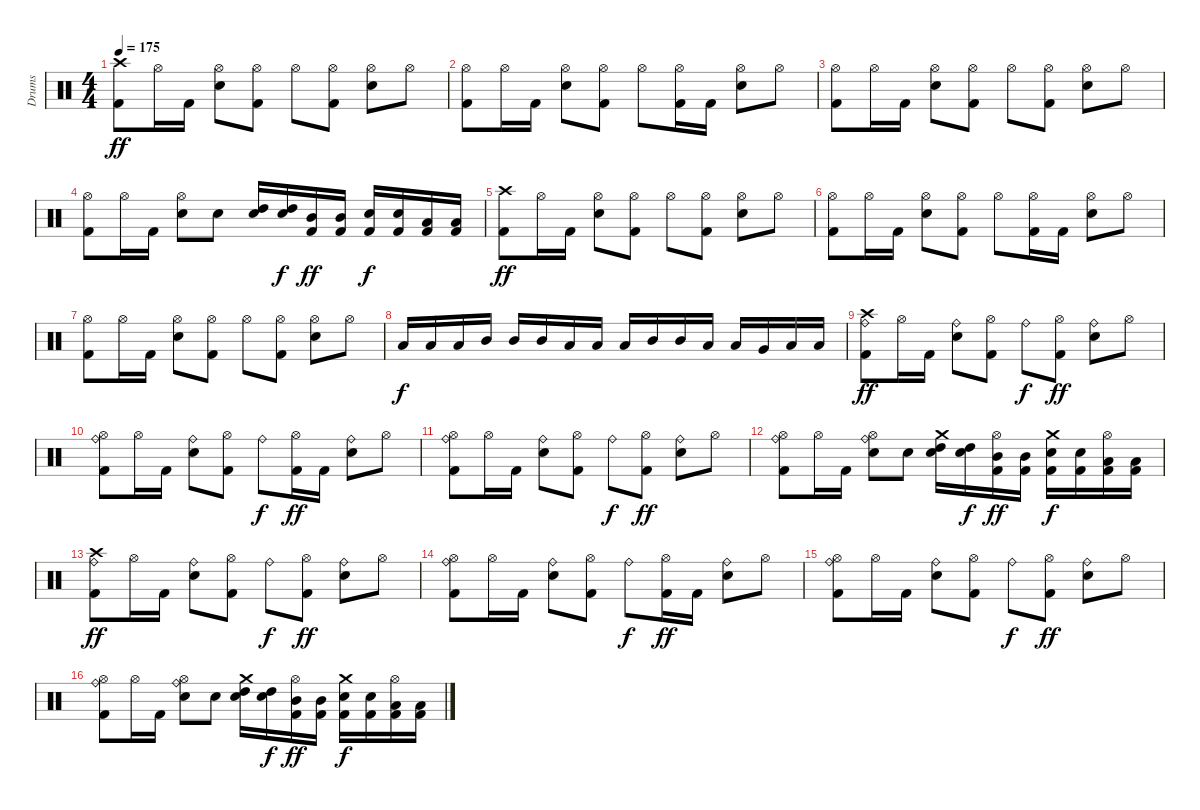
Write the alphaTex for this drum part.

\track ("Drums" "Drums") {instrument percussion}
\staff {score}
\articulation defaults
\ts (4 4)
\tempo 175
\clef neutral
\ks c
("Kick (hit) 2" "Crash high (hit)").8{dy ff} "Hi-Hat (open)".16 "Kick (hit) 2".16 ("Hi-Hat (open)" "Electric Snare (hit)").8 ("Kick (hit) 2" "Hi-Hat (open)").8 "Hi-Hat (open)".8 ("Kick (hit) 2" "Hi-Hat (open)").8 ("Hi-Hat (open)" "Electric Snare (hit)").8 "Hi-Hat (open)".8 |
("Kick (hit) 2" "Hi-Hat (open)").8 "Hi-Hat (open)".16 "Kick (hit) 2".16 ("Hi-Hat (open)" "Electric Snare (hit)").8 ("Kick (hit) 2" "Hi-Hat (open)").8 "Hi-Hat (open)".8 ("Kick (hit) 2" "Hi-Hat (open)").16 "Kick (hit) 2".16 ("Hi-Hat (open)" "Electric Snare (hit)").8 "Hi-Hat (open)".8 |
("Kick (hit) 2" "Hi-Hat (open)").8 "Hi-Hat (open)".16 "Kick (hit) 2".16 ("Hi-Hat (open)" "Electric Snare (hit)").8 ("Kick (hit) 2" "Hi-Hat (open)").8 "Hi-Hat (open)".8 ("Kick (hit) 2" "Hi-Hat (open)").8 ("Hi-Hat (open)" "Electric Snare (hit)").8 "Hi-Hat (open)".8 |
("Kick (hit) 2" "Hi-Hat (open)").8 "Hi-Hat (open)".16 "Kick (hit) 2".16 ("Hi-Hat (open)" "Electric Snare (hit)").8 "Snare (hit) 2".8 ("Electric Snare (hit)" "High Tom (hit)").16 ("Electric Snare (hit)" "High Tom (hit)").16{dy f} ("Kick (hit) 2" "Mid Tom (hit)").16{dy ff} ("Kick (hit) 2" "Mid Tom (hit)").16 ("Kick (hit) 2" "Electric Snare (hit)").16{dy f} ("Kick (hit) 2" "Electric Snare (hit)").16 ("Kick (hit) 2" "Low Tom (hit)").16 ("Kick (hit) 2" "Low Tom (hit)").16 |
("Kick (hit) 2" "Crash high (hit)").8{dy ff} "Hi-Hat (open)".16 "Kick (hit) 2".16 ("Hi-Hat (open)" "Electric Snare (hit)").8 ("Kick (hit) 2" "Hi-Hat (open)").8 "Hi-Hat (open)".8 ("Kick (hit) 2" "Hi-Hat (open)").8 ("Hi-Hat (open)" "Electric Snare (hit)").8 "Hi-Hat (open)".8 |
("Kick (hit) 2" "Hi-Hat (open)").8 "Hi-Hat (open)".16 "Kick (hit) 2".16 ("Hi-Hat (open)" "Electric Snare (hit)").8 ("Kick (hit) 2" "Hi-Hat (open)").8 "Hi-Hat (open)".8 ("Kick (hit) 2" "Hi-Hat (open)").16 "Kick (hit) 2".16 ("Hi-Hat (open)" "Electric Snare (hit)").8 "Hi-Hat (open)".8 |
("Kick (hit) 2" "Hi-Hat (open)").8 "Hi-Hat (open)".16 "Kick (hit) 2".16 ("Hi-Hat (open)" "Electric Snare (hit)").8 ("Kick (hit) 2" "Hi-Hat (open)").8 "Hi-Hat (open)".8 ("Kick (hit) 2" "Hi-Hat (open)").8 ("Hi-Hat (open)" "Electric Snare (hit)").8 "Hi-Hat (open)".8 |
"Low Tom (hit)".16{dy f} "Low Tom (hit)".16 "Low Tom (hit)".16 "Mid Tom (hit)".16 "Mid Tom (hit)".16 "Mid Tom (hit)".16 "Low Tom (hit)".16 "Low Tom (hit)".16 "Low Tom (hit)".16 "Mid Tom (hit)".16 "Mid Tom (hit)".16 "Low Tom (hit)".16 "Low Tom (hit)".16 "Very Low Tom (hit)".16 "Low Floor Tom (hit)".16 "Low Floor Tom (hit)".16 |
("Kick (hit) 2" "Crash high (hit)" "Ride (bell)").8{dy ff} "Hi-Hat (open)".16 "Kick (hit) 2".16 ("Electric Snare (hit)" "Ride (bell)").8 ("Kick (hit) 2" "Hi-Hat (open)").8 "Ride (bell)".8{dy f} ("Kick (hit) 2" "Hi-Hat (open)").8{dy ff} ("Electric Snare (hit)" "Ride (bell)").8 "Hi-Hat (open)".8 |
("Kick (hit) 2" "Hi-Hat (open)" "Ride (bell)").8 "Hi-Hat (open)".16 "Kick (hit) 2".16 ("Electric Snare (hit)" "Ride (bell)").8 ("Kick (hit) 2" "Hi-Hat (open)").8 "Ride (bell)".8{dy f} ("Kick (hit) 2" "Hi-Hat (open)").16{dy ff} "Kick (hit) 2".16 ("Electric Snare (hit)" "Ride (bell)").8 "Hi-Hat (open)".8 |
("Kick (hit) 2" "Hi-Hat (open)" "Ride (bell)").8 "Hi-Hat (open)".16 "Kick (hit) 2".16 ("Electric Snare (hit)" "Ride (bell)").8 ("Kick (hit) 2" "Hi-Hat (open)").8 "Ride (bell)".8{dy f} ("Kick (hit) 2" "Hi-Hat (open)").8{dy ff} ("Electric Snare (hit)" "Ride (bell)").8 "Hi-Hat (open)".8 |
("Kick (hit) 2" "Hi-Hat (open)" "Ride (bell)").8 "Hi-Hat (open)".16 "Kick (hit) 2".16 ("Hi-Hat (open)" "Electric Snare (hit)" "Ride (bell)").8 "Snare (hit) 2".8 ("Electric Snare (hit)" "High Tom (hit)" "Crash medium (hit)").16 ("Electric Snare (hit)" "High Tom (hit)").16{dy f} ("Kick (hit) 2" "Mid Tom (hit)" "Hi-Hat (open)").16{dy ff} ("Kick (hit) 2" "Mid Tom (hit)").16 ("Kick (hit) 2" "Electric Snare (hit)" "Crash medium (hit)").16{dy f} ("Kick (hit) 2" "Electric Snare (hit)").16 ("Kick (hit) 2" "Low Tom (hit)" "Hi-Hat (open)").16 ("Kick (hit) 2" "Low Tom (hit)").16 |
("Kick (hit) 2" "Crash high (hit)" "Ride (bell)").8{dy ff} "Hi-Hat (open)".16 "Kick (hit) 2".16 ("Electric Snare (hit)" "Ride (bell)").8 ("Kick (hit) 2" "Hi-Hat (open)").8 "Ride (bell)".8{dy f} ("Kick (hit) 2" "Hi-Hat (open)").8{dy ff} ("Electric Snare (hit)" "Ride (bell)").8 "Hi-Hat (open)".8 |
("Kick (hit) 2" "Hi-Hat (open)" "Ride (bell)").8 "Hi-Hat (open)".16 "Kick (hit) 2".16 ("Electric Snare (hit)" "Ride (bell)").8 ("Kick (hit) 2" "Hi-Hat (open)").8 "Ride (bell)".8{dy f} ("Kick (hit) 2" "Hi-Hat (open)").16{dy ff} "Kick (hit) 2".16 ("Electric Snare (hit)" "Ride (bell)").8 "Hi-Hat (open)".8 |
("Kick (hit) 2" "Hi-Hat (open)" "Ride (bell)").8 "Hi-Hat (open)".16 "Kick (hit) 2".16 ("Electric Snare (hit)" "Ride (bell)").8 ("Kick (hit) 2" "Hi-Hat (open)").8 "Ride (bell)".8{dy f} ("Kick (hit) 2" "Hi-Hat (open)").8{dy ff} ("Electric Snare (hit)" "Ride (bell)").8 "Hi-Hat (open)".8 |
("Kick (hit) 2" "Hi-Hat (open)" "Ride (bell)").8 "Hi-Hat (open)".16 "Kick (hit) 2".16 ("Hi-Hat (open)" "Electric Snare (hit)" "Ride (bell)").8 "Snare (hit) 2".8 ("Electric Snare (hit)" "High Tom (hit)" "Crash medium (hit)").16 ("Electric Snare (hit)" "High Tom (hit)").16{dy f} ("Kick (hit) 2" "Mid Tom (hit)" "Hi-Hat (open)").16{dy ff} ("Kick (hit) 2" "Mid Tom (hit)").16 ("Kick (hit) 2" "Electric Snare (hit)" "Crash medium (hit)").16{dy f} ("Kick (hit) 2" "Electric Snare (hit)").16 ("Kick (hit) 2" "Low Tom (hit)" "Hi-Hat (open)").16 ("Kick (hit) 2" "Low Tom (hit)").16
